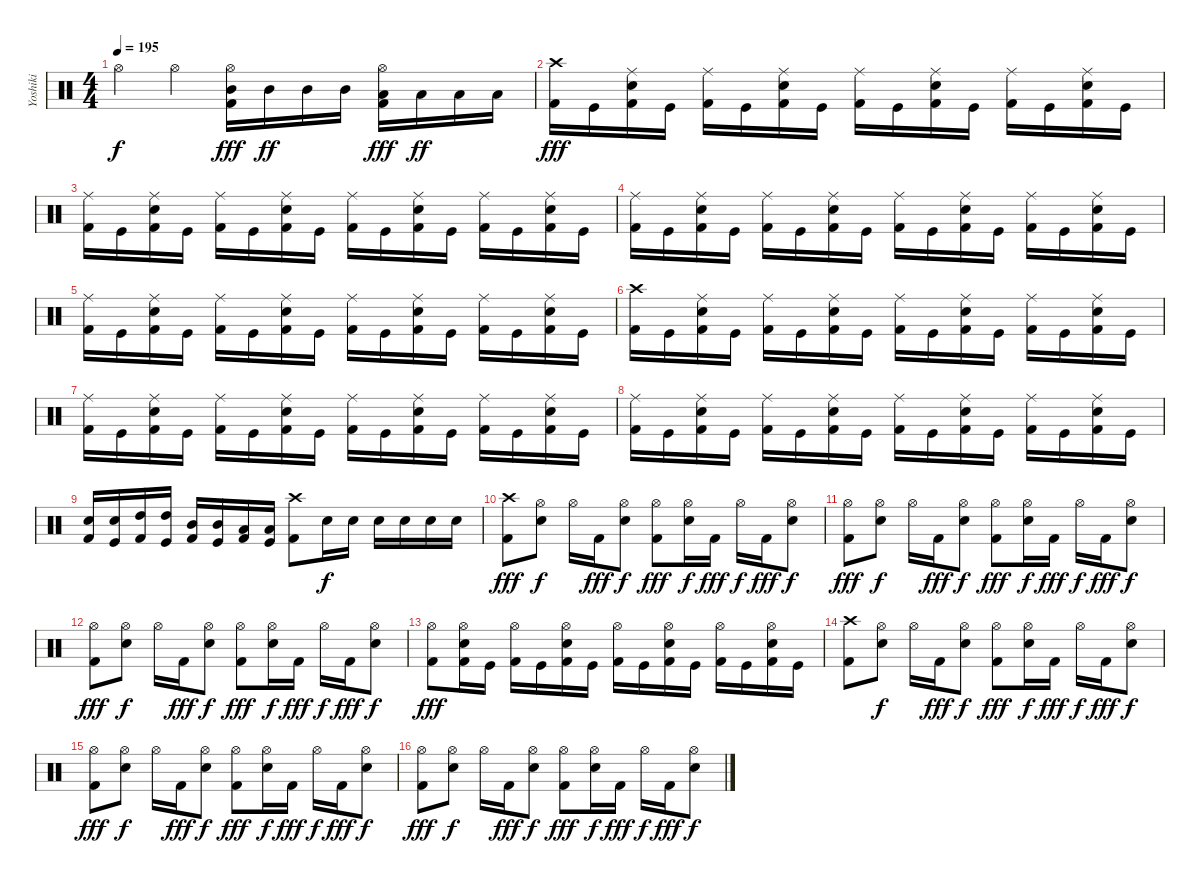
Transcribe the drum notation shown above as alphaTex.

\track ("Yoshiki" "Yoshiki") {instrument percussion}
\staff {score}
\articulation defaults
\ts (4 4)
\tempo 195
\clef neutral
\ks c "Hi-Hat (open)".4{dy f} "Hi-Hat (open)".4
("Hi-Hat (open)" "Mid Tom (hit)" "Kick (hit) 2").16{dy fff} "Mid Tom (hit)".16{dy ff} "Mid Tom (hit)".16 "Mid Tom (hit)".16 ("Hi-Hat (open)" "Low Tom (hit)" "Kick (hit) 2").16{dy fff} "Low Tom (hit)".16{dy ff} "Low Tom (hit)".16 "Low Tom (hit)".16 |
("Crash high (hit)" "Kick (hit) 2").16{dy fff} "Kick (hit)".16 ("Ride (middle)" "Electric Snare (hit)" "Kick (hit) 2").16 "Kick (hit)".16 ("Ride (middle)" "Kick (hit) 2").16 "Kick (hit)".16 ("Ride (middle)" "Electric Snare (hit)" "Kick (hit) 2").16 "Kick (hit)".16 ("Ride (middle)" "Kick (hit) 2").16 "Kick (hit)".16 ("Ride (middle)" "Electric Snare (hit)" "Kick (hit) 2").16 "Kick (hit)".16 ("Ride (middle)" "Kick (hit) 2").16 "Kick (hit)".16 ("Ride (middle)" "Electric Snare (hit)" "Kick (hit) 2").16 "Kick (hit)".16 |
("Ride (middle)" "Kick (hit) 2").16 "Kick (hit)".16 ("Ride (middle)" "Electric Snare (hit)" "Kick (hit) 2").16 "Kick (hit)".16 ("Ride (middle)" "Kick (hit) 2").16 "Kick (hit)".16 ("Ride (middle)" "Electric Snare (hit)" "Kick (hit) 2").16 "Kick (hit)".16 ("Ride (middle)" "Kick (hit) 2").16 "Kick (hit)".16 ("Ride (middle)" "Electric Snare (hit)" "Kick (hit) 2").16 "Kick (hit)".16 ("Ride (middle)" "Kick (hit) 2").16 "Kick (hit)".16 ("Ride (middle)" "Electric Snare (hit)" "Kick (hit) 2").16 "Kick (hit)".16 |
("Ride (middle)" "Kick (hit) 2").16 "Kick (hit)".16 ("Ride (middle)" "Electric Snare (hit)" "Kick (hit) 2").16 "Kick (hit)".16 ("Ride (middle)" "Kick (hit) 2").16 "Kick (hit)".16 ("Ride (middle)" "Electric Snare (hit)" "Kick (hit) 2").16 "Kick (hit)".16 ("Ride (middle)" "Kick (hit) 2").16 "Kick (hit)".16 ("Ride (middle)" "Electric Snare (hit)" "Kick (hit) 2").16 "Kick (hit)".16 ("Ride (middle)" "Kick (hit) 2").16 "Kick (hit)".16 ("Ride (middle)" "Electric Snare (hit)" "Kick (hit) 2").16 "Kick (hit)".16 |
("Ride (middle)" "Kick (hit) 2").16 "Kick (hit)".16 ("Ride (middle)" "Electric Snare (hit)" "Kick (hit) 2").16 "Kick (hit)".16 ("Ride (middle)" "Kick (hit) 2").16 "Kick (hit)".16 ("Ride (middle)" "Electric Snare (hit)" "Kick (hit) 2").16 "Kick (hit)".16 ("Ride (middle)" "Kick (hit) 2").16 "Kick (hit)".16 ("Ride (middle)" "Electric Snare (hit)" "Kick (hit) 2").16 "Kick (hit)".16 ("Ride (middle)" "Kick (hit) 2").16 "Kick (hit)".16 ("Ride (middle)" "Electric Snare (hit)" "Kick (hit) 2").16 "Kick (hit)".16 |
("Crash high (hit)" "Kick (hit) 2").16 "Kick (hit)".16 ("Ride (middle)" "Electric Snare (hit)" "Kick (hit) 2").16 "Kick (hit)".16 ("Ride (middle)" "Kick (hit) 2").16 "Kick (hit)".16 ("Ride (middle)" "Electric Snare (hit)" "Kick (hit) 2").16 "Kick (hit)".16 ("Ride (middle)" "Kick (hit) 2").16 "Kick (hit)".16 ("Ride (middle)" "Electric Snare (hit)" "Kick (hit) 2").16 "Kick (hit)".16 ("Ride (middle)" "Kick (hit) 2").16 "Kick (hit)".16 ("Ride (middle)" "Electric Snare (hit)" "Kick (hit) 2").16 "Kick (hit)".16 |
("Ride (middle)" "Kick (hit) 2").16 "Kick (hit)".16 ("Ride (middle)" "Electric Snare (hit)" "Kick (hit) 2").16 "Kick (hit)".16 ("Ride (middle)" "Kick (hit) 2").16 "Kick (hit)".16 ("Ride (middle)" "Electric Snare (hit)" "Kick (hit) 2").16 "Kick (hit)".16 ("Ride (middle)" "Kick (hit) 2").16 "Kick (hit)".16 ("Ride (middle)" "Electric Snare (hit)" "Kick (hit) 2").16 "Kick (hit)".16 ("Ride (middle)" "Kick (hit) 2").16 "Kick (hit)".16 ("Ride (middle)" "Electric Snare (hit)" "Kick (hit) 2").16 "Kick (hit)".16 |
("Ride (middle)" "Kick (hit) 2").16 "Kick (hit)".16 ("Ride (middle)" "Electric Snare (hit)" "Kick (hit) 2").16 "Kick (hit)".16 ("Ride (middle)" "Kick (hit) 2").16 "Kick (hit)".16 ("Ride (middle)" "Electric Snare (hit)" "Kick (hit) 2").16 "Kick (hit)".16 ("Ride (middle)" "Kick (hit) 2").16 "Kick (hit)".16 ("Ride (middle)" "Electric Snare (hit)" "Kick (hit) 2").16 "Kick (hit)".16 ("Ride (middle)" "Kick (hit) 2").16 "Kick (hit)".16 ("Ride (middle)" "Electric Snare (hit)" "Kick (hit) 2").16 "Kick (hit)".16 |
("Electric Snare (hit)" "Kick (hit) 2").16 ("Electric Snare (hit)" "Kick (hit)").16 ("High Tom (hit)" "Kick (hit) 2").16 ("High Tom (hit)" "Kick (hit)").16 ("Mid Tom (hit)" "Kick (hit) 2").16 ("Mid Tom (hit)" "Kick (hit)").16 ("Low Tom (hit)" "Kick (hit) 2").16 ("Low Tom (hit)" "Kick (hit)").16 ("Crash high (hit)" "Kick (hit) 2").8 "Electric Snare (hit)".16{dy f} "Electric Snare (hit)".16 "Electric Snare (hit)".16 "Electric Snare (hit)".16 "Electric Snare (hit)".16 "Electric Snare (hit)".16 |
("Crash high (hit)" "Kick (hit) 2").8{dy fff} ("Hi-Hat (open)" "Electric Snare (hit)").8{dy f} "Hi-Hat (open)".16 "Kick (hit) 2".16{dy fff} ("Hi-Hat (open)" "Electric Snare (hit)").8{dy f} ("Hi-Hat (open)" "Kick (hit) 2").8{dy fff} ("Hi-Hat (open)" "Electric Snare (hit)").16{dy f} "Kick (hit) 2".16{dy fff} "Hi-Hat (open)".16{dy f} "Kick (hit) 2".16{dy fff} ("Hi-Hat (open)" "Electric Snare (hit)").8{dy f} |
("Hi-Hat (open)" "Kick (hit) 2").8{dy fff} ("Hi-Hat (open)" "Electric Snare (hit)").8{dy f} "Hi-Hat (open)".16 "Kick (hit) 2".16{dy fff} ("Hi-Hat (open)" "Electric Snare (hit)").8{dy f} ("Hi-Hat (open)" "Kick (hit) 2").8{dy fff} ("Hi-Hat (open)" "Electric Snare (hit)").16{dy f} "Kick (hit) 2".16{dy fff} "Hi-Hat (open)".16{dy f} "Kick (hit) 2".16{dy fff} ("Hi-Hat (open)" "Electric Snare (hit)").8{dy f} |
("Hi-Hat (open)" "Kick (hit) 2").8{dy fff} ("Hi-Hat (open)" "Electric Snare (hit)").8{dy f} "Hi-Hat (open)".16 "Kick (hit) 2".16{dy fff} ("Hi-Hat (open)" "Electric Snare (hit)").8{dy f} ("Hi-Hat (open)" "Kick (hit) 2").8{dy fff} ("Hi-Hat (open)" "Electric Snare (hit)").16{dy f} "Kick (hit) 2".16{dy fff} "Hi-Hat (open)".16{dy f} "Kick (hit) 2".16{dy fff} ("Hi-Hat (open)" "Electric Snare (hit)").8{dy f} |
("Hi-Hat (open)" "Kick (hit) 2").8{dy fff} ("Hi-Hat (open)" "Electric Snare (hit)" "Kick (hit) 2").16 "Kick (hit)".16 ("Hi-Hat (open)" "Kick (hit) 2").16 "Kick (hit)".16 ("Hi-Hat (open)" "Electric Snare (hit)" "Kick (hit) 2").16 "Kick (hit)".16 ("Hi-Hat (open)" "Kick (hit) 2").16 "Kick (hit)".16 ("Hi-Hat (open)" "Electric Snare (hit)" "Kick (hit) 2").16 "Kick (hit)".16 ("Hi-Hat (open)" "Kick (hit) 2").16 "Kick (hit)".16 ("Hi-Hat (open)" "Electric Snare (hit)" "Kick (hit) 2").16 "Kick (hit)".16 |
("Crash high (hit)" "Kick (hit) 2").8 ("Hi-Hat (open)" "Electric Snare (hit)").8{dy f} "Hi-Hat (open)".16 "Kick (hit) 2".16{dy fff} ("Hi-Hat (open)" "Electric Snare (hit)").8{dy f} ("Hi-Hat (open)" "Kick (hit) 2").8{dy fff} ("Hi-Hat (open)" "Electric Snare (hit)").16{dy f} "Kick (hit) 2".16{dy fff} "Hi-Hat (open)".16{dy f} "Kick (hit) 2".16{dy fff} ("Hi-Hat (open)" "Electric Snare (hit)").8{dy f} |
("Hi-Hat (open)" "Kick (hit) 2").8{dy fff} ("Hi-Hat (open)" "Electric Snare (hit)").8{dy f} "Hi-Hat (open)".16 "Kick (hit) 2".16{dy fff} ("Hi-Hat (open)" "Electric Snare (hit)").8{dy f} ("Hi-Hat (open)" "Kick (hit) 2").8{dy fff} ("Hi-Hat (open)" "Electric Snare (hit)").16{dy f} "Kick (hit) 2".16{dy fff} "Hi-Hat (open)".16{dy f} "Kick (hit) 2".16{dy fff} ("Hi-Hat (open)" "Electric Snare (hit)").8{dy f} |
("Hi-Hat (open)" "Kick (hit) 2").8{dy fff} ("Hi-Hat (open)" "Electric Snare (hit)").8{dy f} "Hi-Hat (open)".16 "Kick (hit) 2".16{dy fff} ("Hi-Hat (open)" "Electric Snare (hit)").8{dy f} ("Hi-Hat (open)" "Kick (hit) 2").8{dy fff} ("Hi-Hat (open)" "Electric Snare (hit)").16{dy f} "Kick (hit) 2".16{dy fff} "Hi-Hat (open)".16{dy f} "Kick (hit) 2".16{dy fff} ("Hi-Hat (open)" "Electric Snare (hit)").8{dy f}
